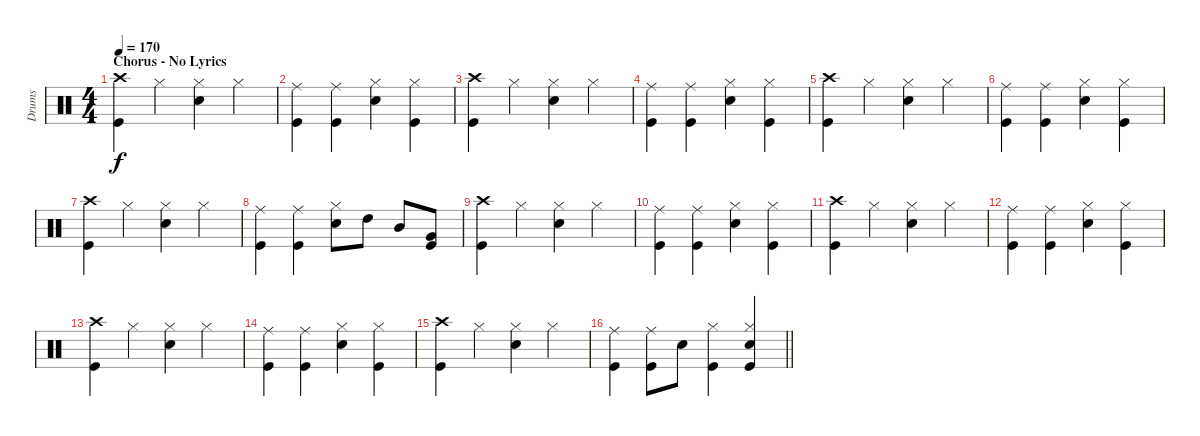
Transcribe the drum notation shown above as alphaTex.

\track ("Drums" "Drums") {instrument percussion}
\staff {score}
\articulation defaults
\ts (4 4)
\section ("" "Chorus - No Lyrics")
\tempo 170
\clef neutral
\ks c
("Crash high (hit)" "Kick (hit)").4{dy f} "Hi-Hat (closed)".4 ("Hi-Hat (closed)" "Snare (hit) 2").4 "Hi-Hat (closed)".4 |
("Ride (middle)" "Kick (hit)").4 ("Ride (middle)" "Kick (hit)").4 ("Hi-Hat (closed)" "Snare (hit) 2").4 ("Hi-Hat (closed)" "Kick (hit)").4 |
("Crash high (hit)" "Kick (hit)").4 "Hi-Hat (closed)".4 ("Hi-Hat (closed)" "Snare (hit) 2").4 "Hi-Hat (closed)".4 |
("Ride (middle)" "Kick (hit)").4 ("Ride (middle)" "Kick (hit)").4 ("Hi-Hat (closed)" "Snare (hit) 2").4 ("Hi-Hat (closed)" "Kick (hit)").4 |
("Crash high (hit)" "Kick (hit)").4 "Hi-Hat (closed)".4 ("Hi-Hat (closed)" "Snare (hit) 2").4 "Hi-Hat (closed)".4 |
("Ride (middle)" "Kick (hit)").4 ("Ride (middle)" "Kick (hit)").4 ("Hi-Hat (closed)" "Snare (hit) 2").4 ("Hi-Hat (closed)" "Kick (hit)").4 |
("Crash high (hit)" "Kick (hit)").4 "Hi-Hat (closed)".4 ("Hi-Hat (closed)" "Snare (hit) 2").4 "Hi-Hat (closed)".4 |
("Ride (middle)" "Kick (hit)").4 ("Ride (middle)" "Kick (hit)").4 ("Hi-Hat (closed)" "Snare (hit) 2").8 "High Tom (hit)".8 "Mid Tom (hit)".8 ("Very Low Tom (hit)" "Kick (hit)").8 |
("Crash high (hit)" "Kick (hit)").4 "Hi-Hat (closed)".4 ("Hi-Hat (closed)" "Snare (hit) 2").4 "Hi-Hat (closed)".4 |
("Ride (middle)" "Kick (hit)").4 ("Ride (middle)" "Kick (hit)").4 ("Hi-Hat (closed)" "Snare (hit) 2").4 ("Hi-Hat (closed)" "Kick (hit)").4 |
("Crash high (hit)" "Kick (hit)").4 "Hi-Hat (closed)".4 ("Hi-Hat (closed)" "Snare (hit) 2").4 "Hi-Hat (closed)".4 |
("Ride (middle)" "Kick (hit)").4 ("Ride (middle)" "Kick (hit)").4 ("Hi-Hat (closed)" "Snare (hit) 2").4 ("Hi-Hat (closed)" "Kick (hit)").4 |
("Crash high (hit)" "Kick (hit)").4 "Hi-Hat (closed)".4 ("Hi-Hat (closed)" "Snare (hit) 2").4 "Hi-Hat (closed)".4 |
("Ride (middle)" "Kick (hit)").4 ("Ride (middle)" "Kick (hit)").4 ("Hi-Hat (closed)" "Snare (hit) 2").4 ("Hi-Hat (closed)" "Kick (hit)").4 |
("Crash high (hit)" "Kick (hit)").4 "Hi-Hat (closed)".4 ("Hi-Hat (closed)" "Snare (hit) 2").4 "Hi-Hat (closed)".4 |
\barLineRight lightlight
("Ride (middle)" "Kick (hit)").4 ("Ride (middle)" "Kick (hit)").8 "Snare (hit) 2".8 ("Hi-Hat (closed)" "Kick (hit)").4 ("Hi-Hat (closed)" "Snare (hit) 2" "Kick (hit)").4
